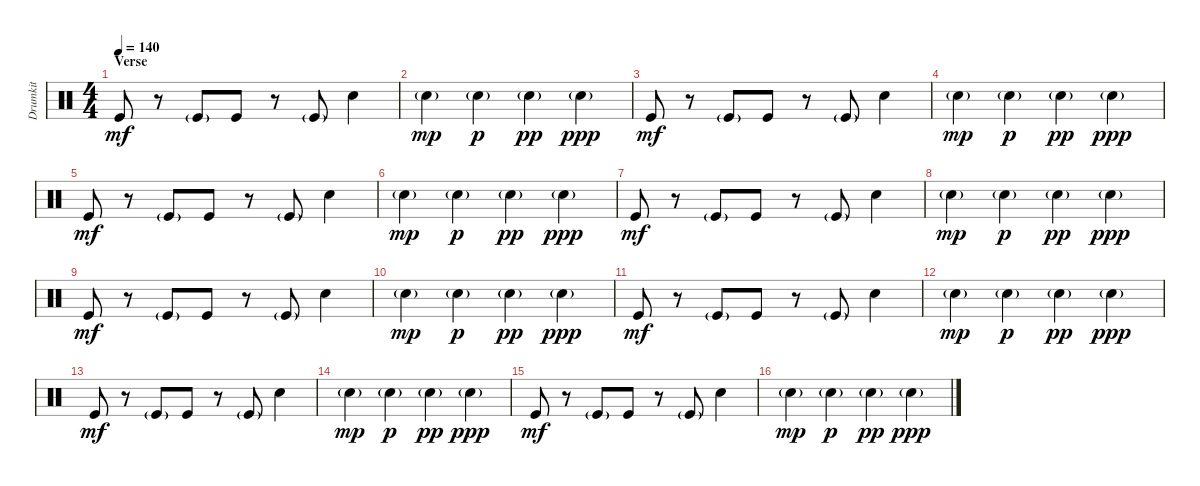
\track ("Drumkit" "Drumkit") {instrument percussion}
\staff {score}
\articulation defaults
\ts (4 4)
\section ("" "Verse")
\tempo 140
\clef neutral
\ks c "Kick (hit)".8{dy mf}
r.8 "Kick (hit)"{g}.8 "Kick (hit)".8 r.8 "Kick (hit)"{g}.8 "Snare (hit) 2".4 |
"Snare (hit) 2"{g}.4{dy mp} "Snare (hit) 2"{g}.4{dy p} "Snare (hit) 2"{g}.4{dy pp} "Snare (hit) 2"{g}.4{dy ppp} |
"Kick (hit)".8{dy mf} r.8 "Kick (hit)"{g}.8 "Kick (hit)".8 r.8 "Kick (hit)"{g}.8 "Snare (hit) 2".4 |
"Snare (hit) 2"{g}.4{dy mp} "Snare (hit) 2"{g}.4{dy p} "Snare (hit) 2"{g}.4{dy pp} "Snare (hit) 2"{g}.4{dy ppp} |
"Kick (hit)".8{dy mf} r.8 "Kick (hit)"{g}.8 "Kick (hit)".8 r.8 "Kick (hit)"{g}.8 "Snare (hit) 2".4 |
"Snare (hit) 2"{g}.4{dy mp} "Snare (hit) 2"{g}.4{dy p} "Snare (hit) 2"{g}.4{dy pp} "Snare (hit) 2"{g}.4{dy ppp} |
"Kick (hit)".8{dy mf} r.8 "Kick (hit)"{g}.8 "Kick (hit)".8 r.8 "Kick (hit)"{g}.8 "Snare (hit) 2".4 |
"Snare (hit) 2"{g}.4{dy mp} "Snare (hit) 2"{g}.4{dy p} "Snare (hit) 2"{g}.4{dy pp} "Snare (hit) 2"{g}.4{dy ppp} |
"Kick (hit)".8{dy mf} r.8 "Kick (hit)"{g}.8 "Kick (hit)".8 r.8 "Kick (hit)"{g}.8 "Snare (hit) 2".4 |
"Snare (hit) 2"{g}.4{dy mp} "Snare (hit) 2"{g}.4{dy p} "Snare (hit) 2"{g}.4{dy pp} "Snare (hit) 2"{g}.4{dy ppp} |
"Kick (hit)".8{dy mf} r.8 "Kick (hit)"{g}.8 "Kick (hit)".8 r.8 "Kick (hit)"{g}.8 "Snare (hit) 2".4 |
"Snare (hit) 2"{g}.4{dy mp} "Snare (hit) 2"{g}.4{dy p} "Snare (hit) 2"{g}.4{dy pp} "Snare (hit) 2"{g}.4{dy ppp} |
"Kick (hit)".8{dy mf} r.8 "Kick (hit)"{g}.8 "Kick (hit)".8 r.8 "Kick (hit)"{g}.8 "Snare (hit) 2".4 |
"Snare (hit) 2"{g}.4{dy mp} "Snare (hit) 2"{g}.4{dy p} "Snare (hit) 2"{g}.4{dy pp} "Snare (hit) 2"{g}.4{dy ppp} |
"Kick (hit)".8{dy mf} r.8 "Kick (hit)"{g}.8 "Kick (hit)".8 r.8 "Kick (hit)"{g}.8 "Snare (hit) 2".4 |
"Snare (hit) 2"{g}.4{dy mp} "Snare (hit) 2"{g}.4{dy p} "Snare (hit) 2"{g}.4{dy pp} "Snare (hit) 2"{g}.4{dy ppp}
